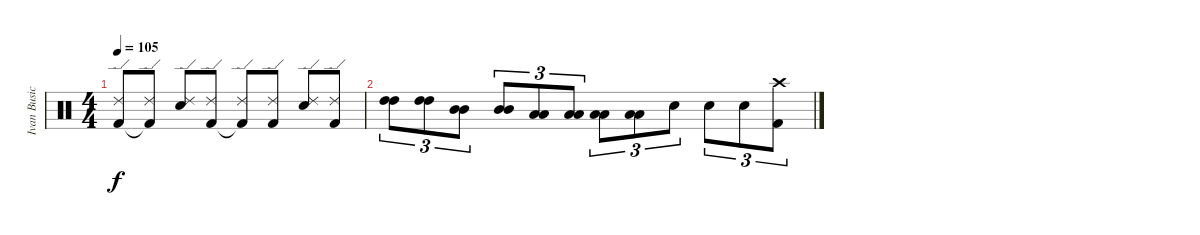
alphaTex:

\track ("Ivan Busic" "Ivan Busic") {instrument percussion}
\staff {score}
\articulation defaults
\ts (4 4)
\tempo 105
\clef neutral
\ks c
("Kick (hit) 2" "Ride (edge) 2").8{dy f} ("Kick (hit) 2"{t} "Ride (edge) 2").8 ("Electric Snare (hit)" "Ride (edge) 2").8 ("Kick (hit) 2" "Ride (edge) 2").8 ("Kick (hit) 2"{t} "Ride (edge) 2").8 ("Kick (hit) 2" "Ride (edge) 2").8 ("Electric Snare (hit)" "Ride (edge) 2").8 ("Kick (hit) 2" "Ride (edge) 2").8 |
("High Tom (hit)" "High Tom (hit)").8{tu (3 2)} ("High Tom (hit)" "High Tom (hit)").8{tu (3 2)} ("Mid Tom (hit)" "Mid Tom (hit)").8{tu (3 2)} ("Mid Tom (hit)" "Mid Tom (hit)").8{tu (3 2)} ("Low Tom (hit)" "Low Tom (hit)").8{tu (3 2)} ("Low Tom (hit)" "Low Tom (hit)").8{tu (3 2)} ("Low Floor Tom (hit)" "Low Floor Tom (hit)").8{tu (3 2)} ("Low Floor Tom (hit)" "Low Floor Tom (hit)").8{tu (3 2)} "Electric Snare (hit)".8{tu (3 2)} "Electric Snare (hit)".8{tu (3 2)} "Electric Snare (hit)".8{tu (3 2)} ("Crash high (hit)" "Kick (hit) 2").8{tu (3 2)}
